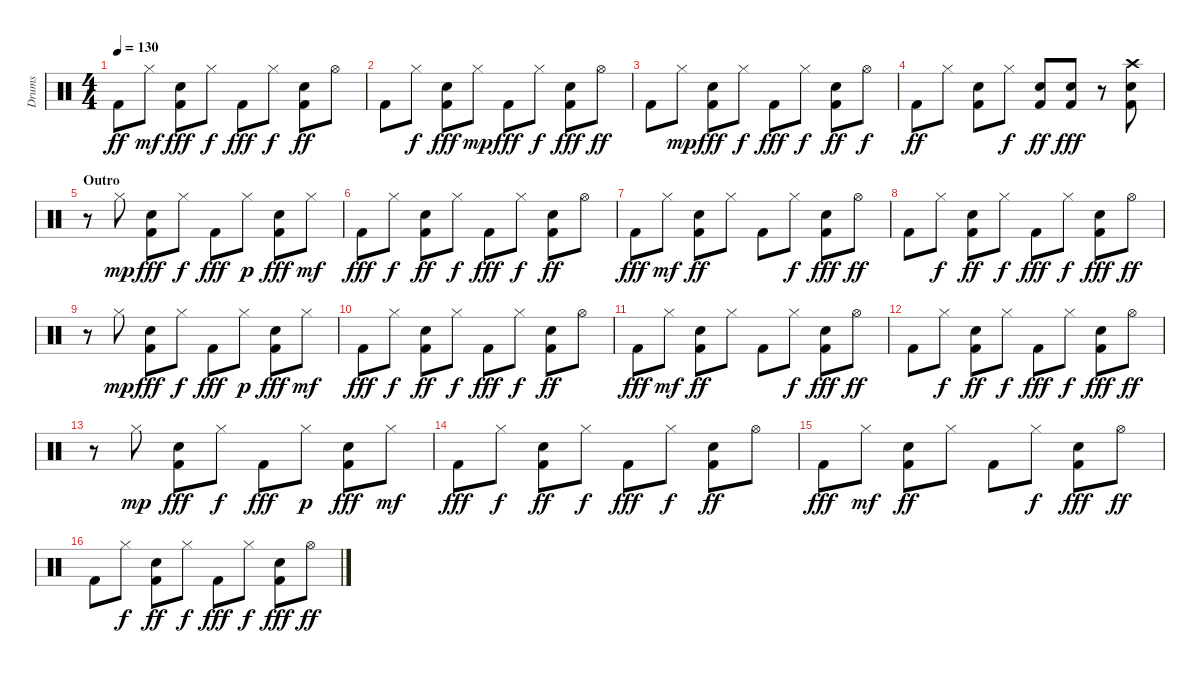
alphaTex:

\track ("Drums" "Drums") {instrument percussion}
\staff {score}
\articulation defaults
\ts (4 4)
\tempo 130
\clef neutral
\ks c "Kick (hit) 2".8{dy ff} "Hi-Hat (closed)".8{dy mf}
("Kick (hit) 2" "Snare (hit) 2").8{dy fff} "Hi-Hat (closed)".8{dy f} "Kick (hit) 2".8{dy fff} "Hi-Hat (closed)".8{dy f} ("Kick (hit) 2" "Snare (hit) 2").8{dy ff} "Hi-Hat (open)".8 |
"Kick (hit) 2".8 "Hi-Hat (closed)".8{dy f} ("Kick (hit) 2" "Snare (hit) 2").8{dy fff} "Hi-Hat (closed)".8{dy mp} "Kick (hit) 2".8{dy fff} "Hi-Hat (closed)".8{dy f} ("Kick (hit) 2" "Snare (hit) 2").8{dy fff} "Hi-Hat (open)".8{dy ff} |
"Kick (hit) 2".8 "Hi-Hat (closed)".8{dy mp} ("Kick (hit) 2" "Snare (hit) 2").8{dy fff} "Hi-Hat (closed)".8{dy f} "Kick (hit) 2".8{dy fff} "Hi-Hat (closed)".8{dy f} ("Kick (hit) 2" "Snare (hit) 2").8{dy ff} "Hi-Hat (open)".8{dy f} |
"Kick (hit) 2".8{dy ff} "Hi-Hat (closed)".8 ("Kick (hit) 2" "Snare (hit) 2").8 "Hi-Hat (closed)".8{dy f} ("Kick (hit) 2" "Snare (hit) 2").8{dy ff} ("Kick (hit) 2" "Snare (hit) 2").8{dy fff} r.8 ("Kick (hit) 2" "Snare (hit) 2" "Crash high (hit)").8 |
\section ("" "Outro")
r.8 "Hi-Hat (closed)".8{dy mp} ("Kick (hit) 2" "Snare (hit) 2").8{dy fff} "Hi-Hat (closed)".8{dy f} "Kick (hit) 2".8{dy fff} "Hi-Hat (closed)".8{dy p} ("Kick (hit) 2" "Snare (hit) 2").8{dy fff} "Hi-Hat (closed)".8{dy mf} |
"Kick (hit) 2".8{dy fff} "Hi-Hat (closed)".8{dy f} ("Kick (hit) 2" "Snare (hit) 2").8{dy ff} "Hi-Hat (closed)".8{dy f} "Kick (hit) 2".8{dy fff} "Hi-Hat (closed)".8{dy f} ("Kick (hit) 2" "Snare (hit) 2").8{dy ff} "Hi-Hat (open)".8 |
"Kick (hit) 2".8{dy fff} "Hi-Hat (closed)".8{dy mf} ("Kick (hit) 2" "Snare (hit) 2").8{dy ff} "Hi-Hat (closed)".8 "Kick (hit) 2".8 "Hi-Hat (closed)".8{dy f} ("Kick (hit) 2" "Snare (hit) 2").8{dy fff} "Hi-Hat (open)".8{dy ff} |
"Kick (hit) 2".8 "Hi-Hat (closed)".8{dy f} ("Kick (hit) 2" "Snare (hit) 2").8{dy ff} "Hi-Hat (closed)".8{dy f} "Kick (hit) 2".8{dy fff} "Hi-Hat (closed)".8{dy f} ("Kick (hit) 2" "Snare (hit) 2").8{dy fff} "Hi-Hat (open)".8{dy ff} |
r.8 "Hi-Hat (closed)".8{dy mp} ("Kick (hit) 2" "Snare (hit) 2").8{dy fff} "Hi-Hat (closed)".8{dy f} "Kick (hit) 2".8{dy fff} "Hi-Hat (closed)".8{dy p} ("Kick (hit) 2" "Snare (hit) 2").8{dy fff} "Hi-Hat (closed)".8{dy mf} |
"Kick (hit) 2".8{dy fff} "Hi-Hat (closed)".8{dy f} ("Kick (hit) 2" "Snare (hit) 2").8{dy ff} "Hi-Hat (closed)".8{dy f} "Kick (hit) 2".8{dy fff} "Hi-Hat (closed)".8{dy f} ("Kick (hit) 2" "Snare (hit) 2").8{dy ff} "Hi-Hat (open)".8 |
"Kick (hit) 2".8{dy fff} "Hi-Hat (closed)".8{dy mf} ("Kick (hit) 2" "Snare (hit) 2").8{dy ff} "Hi-Hat (closed)".8 "Kick (hit) 2".8 "Hi-Hat (closed)".8{dy f} ("Kick (hit) 2" "Snare (hit) 2").8{dy fff} "Hi-Hat (open)".8{dy ff} |
"Kick (hit) 2".8 "Hi-Hat (closed)".8{dy f} ("Kick (hit) 2" "Snare (hit) 2").8{dy ff} "Hi-Hat (closed)".8{dy f} "Kick (hit) 2".8{dy fff} "Hi-Hat (closed)".8{dy f} ("Kick (hit) 2" "Snare (hit) 2").8{dy fff} "Hi-Hat (open)".8{dy ff} |
r.8 "Hi-Hat (closed)".8{dy mp} ("Kick (hit) 2" "Snare (hit) 2").8{dy fff} "Hi-Hat (closed)".8{dy f} "Kick (hit) 2".8{dy fff} "Hi-Hat (closed)".8{dy p} ("Kick (hit) 2" "Snare (hit) 2").8{dy fff} "Hi-Hat (closed)".8{dy mf} |
"Kick (hit) 2".8{dy fff} "Hi-Hat (closed)".8{dy f} ("Kick (hit) 2" "Snare (hit) 2").8{dy ff} "Hi-Hat (closed)".8{dy f} "Kick (hit) 2".8{dy fff} "Hi-Hat (closed)".8{dy f} ("Kick (hit) 2" "Snare (hit) 2").8{dy ff} "Hi-Hat (open)".8 |
"Kick (hit) 2".8{dy fff} "Hi-Hat (closed)".8{dy mf} ("Kick (hit) 2" "Snare (hit) 2").8{dy ff} "Hi-Hat (closed)".8 "Kick (hit) 2".8 "Hi-Hat (closed)".8{dy f} ("Kick (hit) 2" "Snare (hit) 2").8{dy fff} "Hi-Hat (open)".8{dy ff} |
"Kick (hit) 2".8 "Hi-Hat (closed)".8{dy f} ("Kick (hit) 2" "Snare (hit) 2").8{dy ff} "Hi-Hat (closed)".8{dy f} "Kick (hit) 2".8{dy fff} "Hi-Hat (closed)".8{dy f} ("Kick (hit) 2" "Snare (hit) 2").8{dy fff} "Hi-Hat (open)".8{dy ff}
